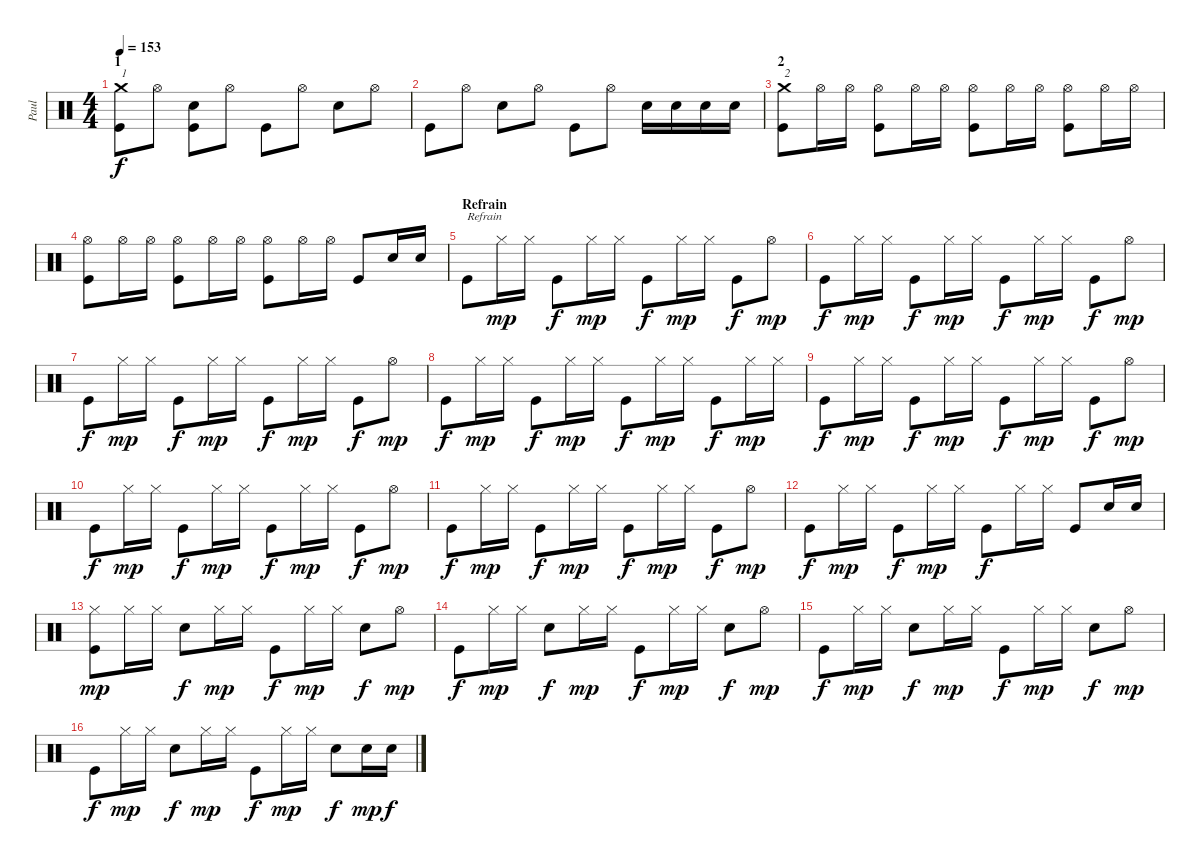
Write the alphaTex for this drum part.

\track ("Paul" "Paul") {instrument percussion}
\staff {score}
\articulation defaults
\ts (4 4)
\section ("" "1")
\tempo 153
\clef neutral
\ks c
("Kick (hit)" "Crash medium (hit)").8{txt "1" dy f} "Hi-Hat (open)".8 ("Electric Snare (hit)" "Kick (hit)").8 "Hi-Hat (open)".8 "Kick (hit)".8 "Hi-Hat (open)".8 "Electric Snare (hit)".8 "Hi-Hat (open)".8 |
"Kick (hit)".8 "Hi-Hat (open)".8 "Electric Snare (hit)".8 "Hi-Hat (open)".8 "Kick (hit)".8 "Hi-Hat (open)".8 "Electric Snare (hit)".16 "Electric Snare (hit)".16 "Electric Snare (hit)".16 "Electric Snare (hit)".16 |
\section ("" "2")
("Kick (hit)" "Crash medium (hit)").8{txt "2"} "Hi-Hat (open)".16 "Hi-Hat (open)".16 ("Hi-Hat (open)" "Kick (hit)").8 "Hi-Hat (open)".16 "Hi-Hat (open)".16 ("Kick (hit)" "Hi-Hat (open)").8 "Hi-Hat (open)".16 "Hi-Hat (open)".16 ("Hi-Hat (open)" "Kick (hit)").8 "Hi-Hat (open)".16 "Hi-Hat (open)".16 |
("Kick (hit)" "Hi-Hat (open)").8 "Hi-Hat (open)".16 "Hi-Hat (open)".16 ("Hi-Hat (open)" "Kick (hit)").8 "Hi-Hat (open)".16 "Hi-Hat (open)".16 ("Kick (hit)" "Hi-Hat (open)").8 "Hi-Hat (open)".16 "Hi-Hat (open)".16 "Kick (hit)".8 "Electric Snare (hit)".16 "Electric Snare (hit)".16 |
\section ("" "Refrain")
"Kick (hit)".8{txt "Refrain"} "Hi-Hat (closed)".16{dy mp} "Hi-Hat (closed)".16 "Kick (hit)".8{dy f} "Hi-Hat (closed)".16{dy mp} "Hi-Hat (closed)".16 "Kick (hit)".8{dy f} "Hi-Hat (closed)".16{dy mp} "Hi-Hat (closed)".16 "Kick (hit)".8{dy f} "Hi-Hat (open)".8{dy mp} |
"Kick (hit)".8{dy f} "Hi-Hat (closed)".16{dy mp} "Hi-Hat (closed)".16 "Kick (hit)".8{dy f} "Hi-Hat (closed)".16{dy mp} "Hi-Hat (closed)".16 "Kick (hit)".8{dy f} "Hi-Hat (closed)".16{dy mp} "Hi-Hat (closed)".16 "Kick (hit)".8{dy f} "Hi-Hat (open)".8{dy mp} |
"Kick (hit)".8{dy f} "Hi-Hat (closed)".16{dy mp} "Hi-Hat (closed)".16 "Kick (hit)".8{dy f} "Hi-Hat (closed)".16{dy mp} "Hi-Hat (closed)".16 "Kick (hit)".8{dy f} "Hi-Hat (closed)".16{dy mp} "Hi-Hat (closed)".16 "Kick (hit)".8{dy f} "Hi-Hat (open)".8{dy mp} |
"Kick (hit)".8{dy f} "Hi-Hat (closed)".16{dy mp} "Hi-Hat (closed)".16 "Kick (hit)".8{dy f} "Hi-Hat (closed)".16{dy mp} "Hi-Hat (closed)".16 "Kick (hit)".8{dy f} "Hi-Hat (closed)".16{dy mp} "Hi-Hat (closed)".16 "Kick (hit)".8{dy f} "Hi-Hat (closed)".16{dy mp} "Hi-Hat (closed)".16 |
"Kick (hit)".8{dy f} "Hi-Hat (closed)".16{dy mp} "Hi-Hat (closed)".16 "Kick (hit)".8{dy f} "Hi-Hat (closed)".16{dy mp} "Hi-Hat (closed)".16 "Kick (hit)".8{dy f} "Hi-Hat (closed)".16{dy mp} "Hi-Hat (closed)".16 "Kick (hit)".8{dy f} "Hi-Hat (open)".8{dy mp} |
"Kick (hit)".8{dy f} "Hi-Hat (closed)".16{dy mp} "Hi-Hat (closed)".16 "Kick (hit)".8{dy f} "Hi-Hat (closed)".16{dy mp} "Hi-Hat (closed)".16 "Kick (hit)".8{dy f} "Hi-Hat (closed)".16{dy mp} "Hi-Hat (closed)".16 "Kick (hit)".8{dy f} "Hi-Hat (open)".8{dy mp} |
"Kick (hit)".8{dy f} "Hi-Hat (closed)".16{dy mp} "Hi-Hat (closed)".16 "Kick (hit)".8{dy f} "Hi-Hat (closed)".16{dy mp} "Hi-Hat (closed)".16 "Kick (hit)".8{dy f} "Hi-Hat (closed)".16{dy mp} "Hi-Hat (closed)".16 "Kick (hit)".8{dy f} "Hi-Hat (open)".8{dy mp} |
"Kick (hit)".8{dy f} "Hi-Hat (closed)".16{dy mp} "Hi-Hat (closed)".16 "Kick (hit)".8{dy f} "Hi-Hat (closed)".16{dy mp} "Hi-Hat (closed)".16 "Kick (hit)".8{dy f} "Hi-Hat (closed)".16 "Hi-Hat (closed)".16 "Kick (hit)".8 "Electric Snare (hit)".16 "Electric Snare (hit)".16 |
("Kick (hit)" "Hi-Hat (closed)").8{dy mp} "Hi-Hat (closed)".16 "Hi-Hat (closed)".16 "Electric Snare (hit)".8{dy f} "Hi-Hat (closed)".16{dy mp} "Hi-Hat (closed)".16 "Kick (hit)".8{dy f} "Hi-Hat (closed)".16{dy mp} "Hi-Hat (closed)".16 "Electric Snare (hit)".8{dy f} "Hi-Hat (open)".8{dy mp} |
"Kick (hit)".8{dy f} "Hi-Hat (closed)".16{dy mp} "Hi-Hat (closed)".16 "Electric Snare (hit)".8{dy f} "Hi-Hat (closed)".16{dy mp} "Hi-Hat (closed)".16 "Kick (hit)".8{dy f} "Hi-Hat (closed)".16{dy mp} "Hi-Hat (closed)".16 "Electric Snare (hit)".8{dy f} "Hi-Hat (open)".8{dy mp} |
"Kick (hit)".8{dy f} "Hi-Hat (closed)".16{dy mp} "Hi-Hat (closed)".16 "Electric Snare (hit)".8{dy f} "Hi-Hat (closed)".16{dy mp} "Hi-Hat (closed)".16 "Kick (hit)".8{dy f} "Hi-Hat (closed)".16{dy mp} "Hi-Hat (closed)".16 "Electric Snare (hit)".8{dy f} "Hi-Hat (open)".8{dy mp} |
"Kick (hit)".8{dy f} "Hi-Hat (closed)".16{dy mp} "Hi-Hat (closed)".16 "Electric Snare (hit)".8{dy f} "Hi-Hat (closed)".16{dy mp} "Hi-Hat (closed)".16 "Kick (hit)".8{dy f} "Hi-Hat (closed)".16{dy mp} "Hi-Hat (closed)".16 "Electric Snare (hit)".8{dy f} "Electric Snare (hit)".16{dy mp} "Electric Snare (hit)".16{dy f}
